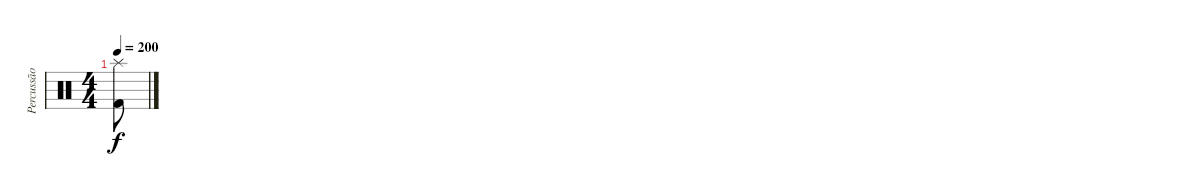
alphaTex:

\track ("Percussão" "Percussão") {instrument percussion}
\staff {score}
\articulation defaults
\ts (4 4)
\tempo 200
\clef neutral
\ks c
("Splash (hit)" "Kick (hit) 2").8{dy f}
